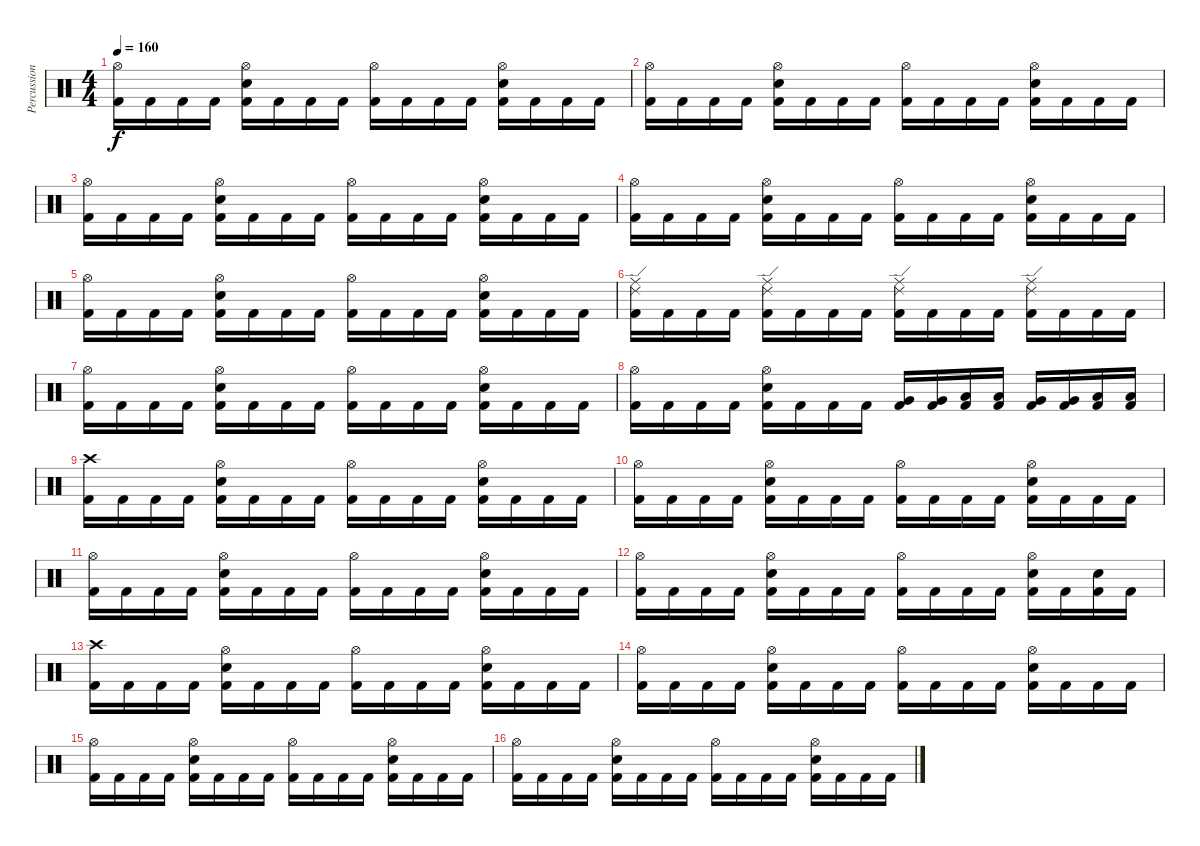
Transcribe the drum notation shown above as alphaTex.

\track ("Percussion" "Percussion") {instrument percussion}
\staff {score}
\articulation defaults
\ts (4 4)
\tempo 160
\clef neutral
\ks c
("Hi-Hat (open)" "Kick (hit) 2").16{dy f} "Kick (hit) 2".16 "Kick (hit) 2".16 "Kick (hit) 2".16 ("Hi-Hat (open)" "Electric Snare (hit)" "Kick (hit) 2").16 "Kick (hit) 2".16 "Kick (hit) 2".16 "Kick (hit) 2".16 ("Hi-Hat (open)" "Kick (hit) 2").16 "Kick (hit) 2".16 "Kick (hit) 2".16 "Kick (hit) 2".16 ("Hi-Hat (open)" "Electric Snare (hit)" "Kick (hit) 2").16 "Kick (hit) 2".16 "Kick (hit) 2".16 "Kick (hit) 2".16 |
("Hi-Hat (open)" "Kick (hit) 2").16 "Kick (hit) 2".16 "Kick (hit) 2".16 "Kick (hit) 2".16 ("Hi-Hat (open)" "Electric Snare (hit)" "Kick (hit) 2").16 "Kick (hit) 2".16 "Kick (hit) 2".16 "Kick (hit) 2".16 ("Hi-Hat (open)" "Kick (hit) 2").16 "Kick (hit) 2".16 "Kick (hit) 2".16 "Kick (hit) 2".16 ("Hi-Hat (open)" "Electric Snare (hit)" "Kick (hit) 2").16 "Kick (hit) 2".16 "Kick (hit) 2".16 "Kick (hit) 2".16 |
("Hi-Hat (open)" "Kick (hit) 2").16 "Kick (hit) 2".16 "Kick (hit) 2".16 "Kick (hit) 2".16 ("Hi-Hat (open)" "Electric Snare (hit)" "Kick (hit) 2").16 "Kick (hit) 2".16 "Kick (hit) 2".16 "Kick (hit) 2".16 ("Hi-Hat (open)" "Kick (hit) 2").16 "Kick (hit) 2".16 "Kick (hit) 2".16 "Kick (hit) 2".16 ("Hi-Hat (open)" "Electric Snare (hit)" "Kick (hit) 2").16 "Kick (hit) 2".16 "Kick (hit) 2".16 "Kick (hit) 2".16 |
("Hi-Hat (open)" "Kick (hit) 2").16 "Kick (hit) 2".16 "Kick (hit) 2".16 "Kick (hit) 2".16 ("Hi-Hat (open)" "Electric Snare (hit)" "Kick (hit) 2").16 "Kick (hit) 2".16 "Kick (hit) 2".16 "Kick (hit) 2".16 ("Hi-Hat (open)" "Kick (hit) 2").16 "Kick (hit) 2".16 "Kick (hit) 2".16 "Kick (hit) 2".16 ("Hi-Hat (open)" "Electric Snare (hit)" "Kick (hit) 2").16 "Kick (hit) 2".16 "Kick (hit) 2".16 "Kick (hit) 2".16 |
("Hi-Hat (open)" "Kick (hit) 2").16 "Kick (hit) 2".16 "Kick (hit) 2".16 "Kick (hit) 2".16 ("Hi-Hat (open)" "Electric Snare (hit)" "Kick (hit) 2").16 "Kick (hit) 2".16 "Kick (hit) 2".16 "Kick (hit) 2".16 ("Hi-Hat (open)" "Kick (hit) 2").16 "Kick (hit) 2".16 "Kick (hit) 2".16 "Kick (hit) 2".16 ("Hi-Hat (open)" "Electric Snare (hit)" "Kick (hit) 2").16 "Kick (hit) 2".16 "Kick (hit) 2".16 "Kick (hit) 2".16 |
("Ride (edge) 2" "Ride (middle)" "Kick (hit) 2").16 "Kick (hit) 2".16 "Kick (hit) 2".16 "Kick (hit) 2".16 ("Ride (edge) 2" "Ride (middle)" "Kick (hit) 2").16 "Kick (hit) 2".16 "Kick (hit) 2".16 "Kick (hit) 2".16 ("Ride (edge) 2" "Ride (middle)" "Kick (hit) 2").16 "Kick (hit) 2".16 "Kick (hit) 2".16 "Kick (hit) 2".16 ("Ride (edge) 2" "Ride (middle)" "Kick (hit) 2").16 "Kick (hit) 2".16 "Kick (hit) 2".16 "Kick (hit) 2".16 |
("Hi-Hat (open)" "Kick (hit) 2").16 "Kick (hit) 2".16 "Kick (hit) 2".16 "Kick (hit) 2".16 ("Hi-Hat (open)" "Electric Snare (hit)" "Kick (hit) 2").16 "Kick (hit) 2".16 "Kick (hit) 2".16 "Kick (hit) 2".16 ("Hi-Hat (open)" "Kick (hit) 2").16 "Kick (hit) 2".16 "Kick (hit) 2".16 "Kick (hit) 2".16 ("Hi-Hat (open)" "Electric Snare (hit)" "Kick (hit) 2").16 "Kick (hit) 2".16 "Kick (hit) 2".16 "Kick (hit) 2".16 |
("Hi-Hat (open)" "Kick (hit) 2").16 "Kick (hit) 2".16 "Kick (hit) 2".16 "Kick (hit) 2".16 ("Hi-Hat (open)" "Electric Snare (hit)" "Kick (hit) 2").16 "Kick (hit) 2".16 "Kick (hit) 2".16 "Kick (hit) 2".16 ("Very Low Tom (hit)" "Kick (hit) 2").16 ("Very Low Tom (hit)" "Kick (hit) 2").16 ("Low Floor Tom (hit)" "Kick (hit) 2").16 ("Low Floor Tom (hit)" "Kick (hit) 2").16 ("Very Low Tom (hit)" "Kick (hit) 2").16 ("Very Low Tom (hit)" "Kick (hit) 2").16 ("Low Floor Tom (hit)" "Kick (hit) 2").16 ("Low Floor Tom (hit)" "Kick (hit) 2").16 |
("Crash high (hit)" "Kick (hit) 2").16 "Kick (hit) 2".16 "Kick (hit) 2".16 "Kick (hit) 2".16 ("Hi-Hat (open)" "Electric Snare (hit)" "Kick (hit) 2").16 "Kick (hit) 2".16 "Kick (hit) 2".16 "Kick (hit) 2".16 ("Hi-Hat (open)" "Kick (hit) 2").16 "Kick (hit) 2".16 "Kick (hit) 2".16 "Kick (hit) 2".16 ("Hi-Hat (open)" "Electric Snare (hit)" "Kick (hit) 2").16 "Kick (hit) 2".16 "Kick (hit) 2".16 "Kick (hit) 2".16 |
("Hi-Hat (open)" "Kick (hit) 2").16 "Kick (hit) 2".16 "Kick (hit) 2".16 "Kick (hit) 2".16 ("Hi-Hat (open)" "Electric Snare (hit)" "Kick (hit) 2").16 "Kick (hit) 2".16 "Kick (hit) 2".16 "Kick (hit) 2".16 ("Hi-Hat (open)" "Kick (hit) 2").16 "Kick (hit) 2".16 "Kick (hit) 2".16 "Kick (hit) 2".16 ("Hi-Hat (open)" "Electric Snare (hit)" "Kick (hit) 2").16 "Kick (hit) 2".16 "Kick (hit) 2".16 "Kick (hit) 2".16 |
("Hi-Hat (open)" "Kick (hit) 2").16 "Kick (hit) 2".16 "Kick (hit) 2".16 "Kick (hit) 2".16 ("Hi-Hat (open)" "Electric Snare (hit)" "Kick (hit) 2").16 "Kick (hit) 2".16 "Kick (hit) 2".16 "Kick (hit) 2".16 ("Hi-Hat (open)" "Kick (hit) 2").16 "Kick (hit) 2".16 "Kick (hit) 2".16 "Kick (hit) 2".16 ("Hi-Hat (open)" "Electric Snare (hit)" "Kick (hit) 2").16 "Kick (hit) 2".16 "Kick (hit) 2".16 "Kick (hit) 2".16 |
("Hi-Hat (open)" "Kick (hit) 2").16 "Kick (hit) 2".16 "Kick (hit) 2".16 "Kick (hit) 2".16 ("Hi-Hat (open)" "Electric Snare (hit)" "Kick (hit) 2").16 "Kick (hit) 2".16 "Kick (hit) 2".16 "Kick (hit) 2".16 ("Hi-Hat (open)" "Kick (hit) 2").16 "Kick (hit) 2".16 "Kick (hit) 2".16 "Kick (hit) 2".16 ("Hi-Hat (open)" "Electric Snare (hit)" "Kick (hit) 2").16 "Kick (hit) 2".16 ("Electric Snare (hit)" "Kick (hit) 2").16 "Kick (hit) 2".16 |
("Crash high (hit)" "Kick (hit) 2").16 "Kick (hit) 2".16 "Kick (hit) 2".16 "Kick (hit) 2".16 ("Hi-Hat (open)" "Electric Snare (hit)" "Kick (hit) 2").16 "Kick (hit) 2".16 "Kick (hit) 2".16 "Kick (hit) 2".16 ("Hi-Hat (open)" "Kick (hit) 2").16 "Kick (hit) 2".16 "Kick (hit) 2".16 "Kick (hit) 2".16 ("Hi-Hat (open)" "Electric Snare (hit)" "Kick (hit) 2").16 "Kick (hit) 2".16 "Kick (hit) 2".16 "Kick (hit) 2".16 |
("Hi-Hat (open)" "Kick (hit) 2").16 "Kick (hit) 2".16 "Kick (hit) 2".16 "Kick (hit) 2".16 ("Hi-Hat (open)" "Electric Snare (hit)" "Kick (hit) 2").16 "Kick (hit) 2".16 "Kick (hit) 2".16 "Kick (hit) 2".16 ("Hi-Hat (open)" "Kick (hit) 2").16 "Kick (hit) 2".16 "Kick (hit) 2".16 "Kick (hit) 2".16 ("Hi-Hat (open)" "Electric Snare (hit)" "Kick (hit) 2").16 "Kick (hit) 2".16 "Kick (hit) 2".16 "Kick (hit) 2".16 |
("Hi-Hat (open)" "Kick (hit) 2").16 "Kick (hit) 2".16 "Kick (hit) 2".16 "Kick (hit) 2".16 ("Hi-Hat (open)" "Electric Snare (hit)" "Kick (hit) 2").16 "Kick (hit) 2".16 "Kick (hit) 2".16 "Kick (hit) 2".16 ("Hi-Hat (open)" "Kick (hit) 2").16 "Kick (hit) 2".16 "Kick (hit) 2".16 "Kick (hit) 2".16 ("Hi-Hat (open)" "Electric Snare (hit)" "Kick (hit) 2").16 "Kick (hit) 2".16 "Kick (hit) 2".16 "Kick (hit) 2".16 |
("Hi-Hat (open)" "Kick (hit) 2").16 "Kick (hit) 2".16 "Kick (hit) 2".16 "Kick (hit) 2".16 ("Hi-Hat (open)" "Electric Snare (hit)" "Kick (hit) 2").16 "Kick (hit) 2".16 "Kick (hit) 2".16 "Kick (hit) 2".16 ("Hi-Hat (open)" "Kick (hit) 2").16 "Kick (hit) 2".16 "Kick (hit) 2".16 "Kick (hit) 2".16 ("Hi-Hat (open)" "Electric Snare (hit)" "Kick (hit) 2").16 "Kick (hit) 2".16 "Kick (hit) 2".16 "Kick (hit) 2".16
